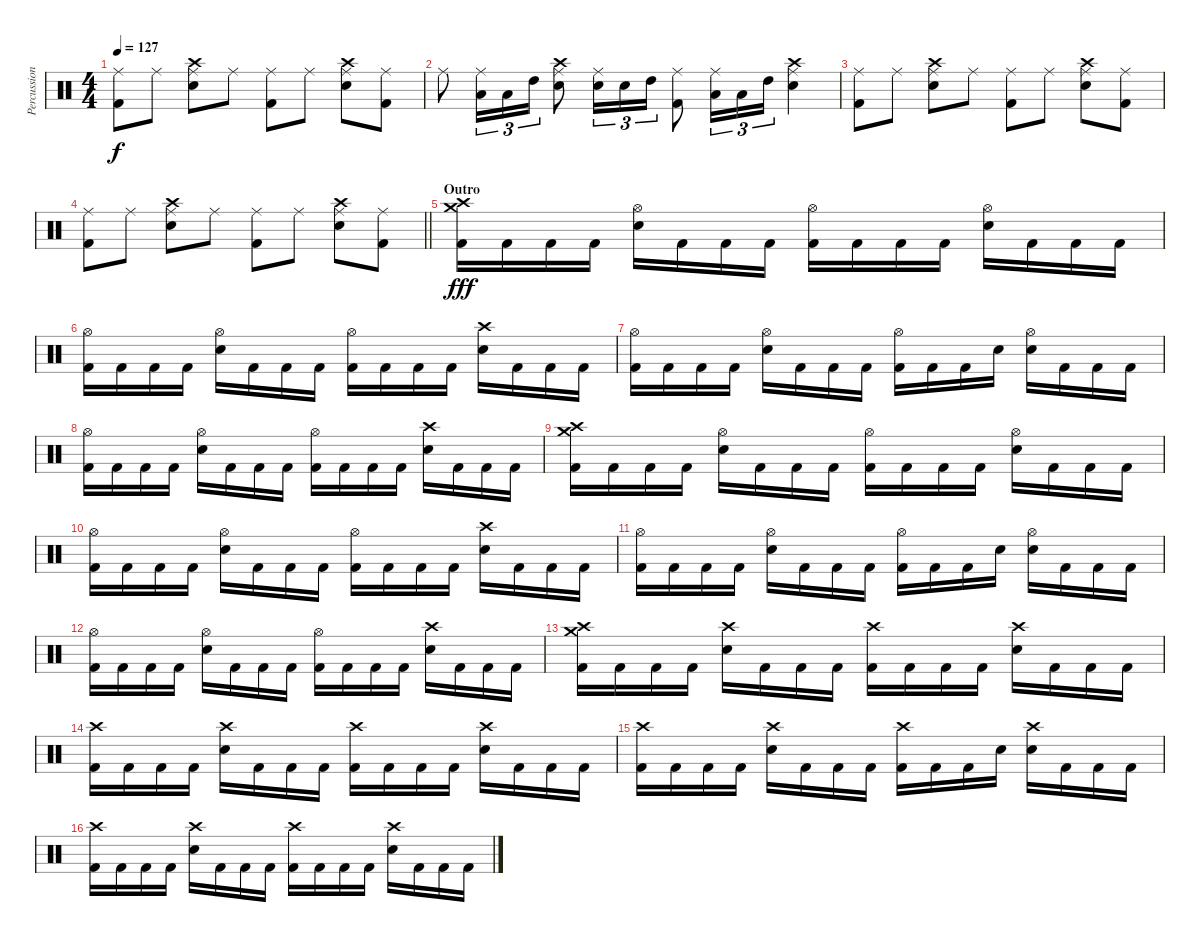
\track ("Percussion" "Percussion") {instrument percussion}
\staff {score}
\articulation defaults
\ts (4 4)
\tempo 127
\clef neutral
\ks c
("Ride (middle)" "Kick (hit) 2").8{dy f} "Ride (middle)".8 ("Crash high (hit)" "Ride (middle)" "Snare (hit) 2").8 "Ride (middle)".8 ("Ride (middle)" "Kick (hit) 2").8 "Ride (middle)".8 ("Crash high (hit)" "Ride (middle)" "Snare (hit) 2").8 ("Ride (middle)" "Kick (hit) 2").8 |
"Ride (middle)".8 ("Ride (middle)" "Low Tom (hit)").16{tu (3 2)} "Low Tom (hit)".16{tu (3 2)} "High Tom (hit)".16{tu (3 2)} ("Crash high (hit)" "Ride (middle)" "Snare (hit) 2").8 ("Ride (middle)" "Snare (hit) 2").16{tu (3 2)} "Snare (hit) 2".16{tu (3 2)} "High Tom (hit)".16{tu (3 2)} ("Ride (middle)" "Kick (hit) 2").8 ("Ride (middle)" "Low Tom (hit)").16{tu (3 2)} "Low Tom (hit)".16{tu (3 2)} "High Tom (hit)".16{tu (3 2)} ("Crash high (hit)" "Ride (middle)" "Snare (hit) 2").4 |
("Ride (middle)" "Kick (hit) 2").8 "Ride (middle)".8 ("Crash high (hit)" "Ride (middle)" "Snare (hit) 2").8 "Ride (middle)".8 ("Ride (middle)" "Kick (hit) 2").8 "Ride (middle)".8 ("Crash high (hit)" "Ride (middle)" "Snare (hit) 2").8 ("Ride (middle)" "Kick (hit) 2").8 |
\barLineRight lightlight
("Ride (middle)" "Kick (hit) 2").8 "Ride (middle)".8 ("Crash high (hit)" "Ride (middle)" "Snare (hit) 2").8 "Ride (middle)".8 ("Ride (middle)" "Kick (hit) 2").8 "Ride (middle)".8 ("Crash high (hit)" "Ride (middle)" "Snare (hit) 2").8 ("Ride (middle)" "Kick (hit) 2").8 |
\section ("" "Outro")
("Crash high (hit)" "Crash medium (hit)" "Kick (hit) 2").16{dy fff} "Kick (hit) 2".16 "Kick (hit) 2".16 "Kick (hit) 2".16 ("Hi-Hat (open)" "Snare (hit) 2").16 "Kick (hit) 2".16 "Kick (hit) 2".16 "Kick (hit) 2".16 ("Hi-Hat (open)" "Kick (hit) 2").16 "Kick (hit) 2".16 "Kick (hit) 2".16 "Kick (hit) 2".16 ("Hi-Hat (open)" "Snare (hit) 2").16 "Kick (hit) 2".16 "Kick (hit) 2".16 "Kick (hit) 2".16 |
("Hi-Hat (open)" "Kick (hit) 2").16 "Kick (hit) 2".16 "Kick (hit) 2".16 "Kick (hit) 2".16 ("Hi-Hat (open)" "Snare (hit) 2").16 "Kick (hit) 2".16 "Kick (hit) 2".16 "Kick (hit) 2".16 ("Hi-Hat (open)" "Kick (hit) 2").16 "Kick (hit) 2".16 "Kick (hit) 2".16 "Kick (hit) 2".16 ("Crash high (hit)" "Snare (hit) 2").16 "Kick (hit) 2".16 "Kick (hit) 2".16 "Kick (hit) 2".16 |
("Hi-Hat (open)" "Kick (hit) 2").16 "Kick (hit) 2".16 "Kick (hit) 2".16 "Kick (hit) 2".16 ("Hi-Hat (open)" "Snare (hit) 2").16 "Kick (hit) 2".16 "Kick (hit) 2".16 "Kick (hit) 2".16 ("Hi-Hat (open)" "Kick (hit) 2").16 "Kick (hit) 2".16 "Kick (hit) 2".16 "Snare (hit) 2".16 ("Hi-Hat (open)" "Snare (hit) 2").16 "Kick (hit) 2".16 "Kick (hit) 2".16 "Kick (hit) 2".16 |
("Hi-Hat (open)" "Kick (hit) 2").16 "Kick (hit) 2".16 "Kick (hit) 2".16 "Kick (hit) 2".16 ("Hi-Hat (open)" "Snare (hit) 2").16 "Kick (hit) 2".16 "Kick (hit) 2".16 "Kick (hit) 2".16 ("Hi-Hat (open)" "Kick (hit) 2").16 "Kick (hit) 2".16 "Kick (hit) 2".16 "Kick (hit) 2".16 ("Crash high (hit)" "Snare (hit) 2").16 "Kick (hit) 2".16 "Kick (hit) 2".16 "Kick (hit) 2".16 |
("Crash high (hit)" "Crash medium (hit)" "Kick (hit) 2").16 "Kick (hit) 2".16 "Kick (hit) 2".16 "Kick (hit) 2".16 ("Hi-Hat (open)" "Snare (hit) 2").16 "Kick (hit) 2".16 "Kick (hit) 2".16 "Kick (hit) 2".16 ("Hi-Hat (open)" "Kick (hit) 2").16 "Kick (hit) 2".16 "Kick (hit) 2".16 "Kick (hit) 2".16 ("Hi-Hat (open)" "Snare (hit) 2").16 "Kick (hit) 2".16 "Kick (hit) 2".16 "Kick (hit) 2".16 |
("Hi-Hat (open)" "Kick (hit) 2").16 "Kick (hit) 2".16 "Kick (hit) 2".16 "Kick (hit) 2".16 ("Hi-Hat (open)" "Snare (hit) 2").16 "Kick (hit) 2".16 "Kick (hit) 2".16 "Kick (hit) 2".16 ("Hi-Hat (open)" "Kick (hit) 2").16 "Kick (hit) 2".16 "Kick (hit) 2".16 "Kick (hit) 2".16 ("Crash high (hit)" "Snare (hit) 2").16 "Kick (hit) 2".16 "Kick (hit) 2".16 "Kick (hit) 2".16 |
("Hi-Hat (open)" "Kick (hit) 2").16 "Kick (hit) 2".16 "Kick (hit) 2".16 "Kick (hit) 2".16 ("Hi-Hat (open)" "Snare (hit) 2").16 "Kick (hit) 2".16 "Kick (hit) 2".16 "Kick (hit) 2".16 ("Hi-Hat (open)" "Kick (hit) 2").16 "Kick (hit) 2".16 "Kick (hit) 2".16 "Snare (hit) 2".16 ("Hi-Hat (open)" "Snare (hit) 2").16 "Kick (hit) 2".16 "Kick (hit) 2".16 "Kick (hit) 2".16 |
("Hi-Hat (open)" "Kick (hit) 2").16 "Kick (hit) 2".16 "Kick (hit) 2".16 "Kick (hit) 2".16 ("Hi-Hat (open)" "Snare (hit) 2").16 "Kick (hit) 2".16 "Kick (hit) 2".16 "Kick (hit) 2".16 ("Hi-Hat (open)" "Kick (hit) 2").16 "Kick (hit) 2".16 "Kick (hit) 2".16 "Kick (hit) 2".16 ("Crash high (hit)" "Snare (hit) 2").16 "Kick (hit) 2".16 "Kick (hit) 2".16 "Kick (hit) 2".16 |
("Crash high (hit)" "Crash medium (hit)" "Kick (hit) 2").16 "Kick (hit) 2".16 "Kick (hit) 2".16 "Kick (hit) 2".16 ("Crash high (hit)" "Snare (hit) 2").16 "Kick (hit) 2".16 "Kick (hit) 2".16 "Kick (hit) 2".16 ("Crash high (hit)" "Kick (hit) 2").16 "Kick (hit) 2".16 "Kick (hit) 2".16 "Kick (hit) 2".16 ("Crash high (hit)" "Snare (hit) 2").16 "Kick (hit) 2".16 "Kick (hit) 2".16 "Kick (hit) 2".16 |
("Crash high (hit)" "Kick (hit) 2").16 "Kick (hit) 2".16 "Kick (hit) 2".16 "Kick (hit) 2".16 ("Crash high (hit)" "Snare (hit) 2").16 "Kick (hit) 2".16 "Kick (hit) 2".16 "Kick (hit) 2".16 ("Crash high (hit)" "Kick (hit) 2").16 "Kick (hit) 2".16 "Kick (hit) 2".16 "Kick (hit) 2".16 ("Crash high (hit)" "Snare (hit) 2").16 "Kick (hit) 2".16 "Kick (hit) 2".16 "Kick (hit) 2".16 |
("Crash high (hit)" "Kick (hit) 2").16 "Kick (hit) 2".16 "Kick (hit) 2".16 "Kick (hit) 2".16 ("Crash high (hit)" "Snare (hit) 2").16 "Kick (hit) 2".16 "Kick (hit) 2".16 "Kick (hit) 2".16 ("Crash high (hit)" "Kick (hit) 2").16 "Kick (hit) 2".16 "Kick (hit) 2".16 "Snare (hit) 2".16 ("Crash high (hit)" "Snare (hit) 2").16 "Kick (hit) 2".16 "Kick (hit) 2".16 "Kick (hit) 2".16 |
("Crash high (hit)" "Kick (hit) 2").16 "Kick (hit) 2".16 "Kick (hit) 2".16 "Kick (hit) 2".16 ("Crash high (hit)" "Snare (hit) 2").16 "Kick (hit) 2".16 "Kick (hit) 2".16 "Kick (hit) 2".16 ("Crash high (hit)" "Kick (hit) 2").16 "Kick (hit) 2".16 "Kick (hit) 2".16 "Kick (hit) 2".16 ("Crash high (hit)" "Snare (hit) 2").16 "Kick (hit) 2".16 "Kick (hit) 2".16 "Kick (hit) 2".16
